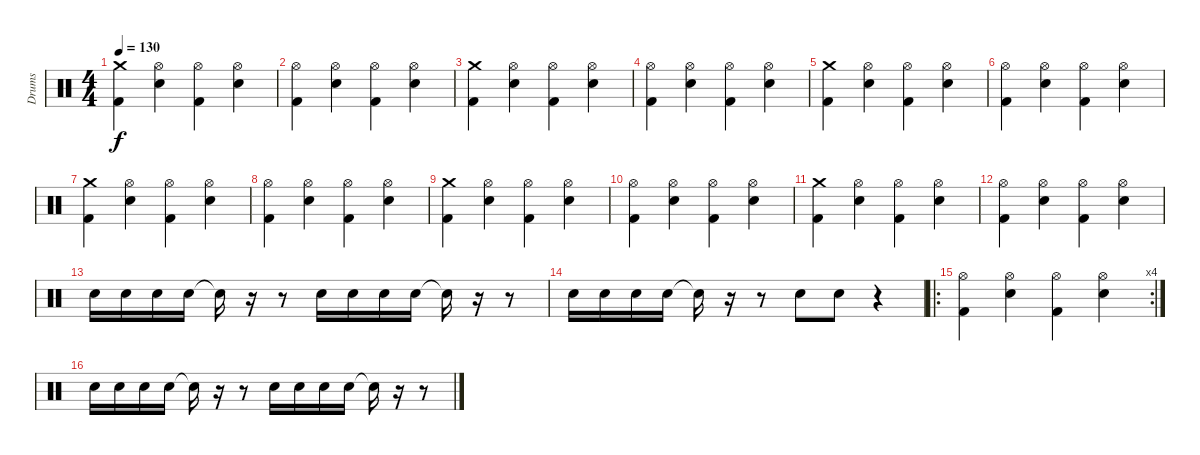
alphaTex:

\track ("Drums" "Drums") {instrument percussion}
\staff {score}
\articulation defaults
\ts (4 4)
\tempo 130
\clef neutral
\ks c
("Crash medium (hit)" "Kick (hit) 2").4{dy f} ("Hi-Hat (open)" "Electric Snare (hit)").4 ("Hi-Hat (open)" "Kick (hit) 2").4 ("Hi-Hat (open)" "Electric Snare (hit)").4 |
("Hi-Hat (open)" "Kick (hit) 2").4 ("Hi-Hat (open)" "Electric Snare (hit)").4 ("Hi-Hat (open)" "Kick (hit) 2").4 ("Hi-Hat (open)" "Electric Snare (hit)").4 |
("Crash medium (hit)" "Kick (hit) 2").4 ("Hi-Hat (open)" "Electric Snare (hit)").4 ("Hi-Hat (open)" "Kick (hit) 2").4 ("Hi-Hat (open)" "Electric Snare (hit)").4 |
("Hi-Hat (open)" "Kick (hit) 2").4 ("Hi-Hat (open)" "Electric Snare (hit)").4 ("Hi-Hat (open)" "Kick (hit) 2").4 ("Hi-Hat (open)" "Electric Snare (hit)").4 |
("Crash medium (hit)" "Kick (hit) 2").4 ("Hi-Hat (open)" "Electric Snare (hit)").4 ("Hi-Hat (open)" "Kick (hit) 2").4 ("Hi-Hat (open)" "Electric Snare (hit)").4 |
("Hi-Hat (open)" "Kick (hit) 2").4 ("Hi-Hat (open)" "Electric Snare (hit)").4 ("Hi-Hat (open)" "Kick (hit) 2").4 ("Hi-Hat (open)" "Electric Snare (hit)").4 |
("Crash medium (hit)" "Kick (hit) 2").4 ("Hi-Hat (open)" "Electric Snare (hit)").4 ("Hi-Hat (open)" "Kick (hit) 2").4 ("Hi-Hat (open)" "Electric Snare (hit)").4 |
("Hi-Hat (open)" "Kick (hit) 2").4 ("Hi-Hat (open)" "Electric Snare (hit)").4 ("Hi-Hat (open)" "Kick (hit) 2").4 ("Hi-Hat (open)" "Electric Snare (hit)").4 |
("Crash medium (hit)" "Kick (hit) 2").4 ("Hi-Hat (open)" "Electric Snare (hit)").4 ("Hi-Hat (open)" "Kick (hit) 2").4 ("Hi-Hat (open)" "Electric Snare (hit)").4 |
("Hi-Hat (open)" "Kick (hit) 2").4 ("Hi-Hat (open)" "Electric Snare (hit)").4 ("Hi-Hat (open)" "Kick (hit) 2").4 ("Hi-Hat (open)" "Electric Snare (hit)").4 |
("Crash medium (hit)" "Kick (hit) 2").4 ("Hi-Hat (open)" "Electric Snare (hit)").4 ("Hi-Hat (open)" "Kick (hit) 2").4 ("Hi-Hat (open)" "Electric Snare (hit)").4 |
("Hi-Hat (open)" "Kick (hit) 2").4 ("Hi-Hat (open)" "Electric Snare (hit)").4 ("Hi-Hat (open)" "Kick (hit) 2").4 ("Hi-Hat (open)" "Electric Snare (hit)").4 |
"Electric Snare (hit)".16 "Electric Snare (hit)".16 "Electric Snare (hit)".16 "Electric Snare (hit)".16 "Snare (hit)"{t}.16 r.16 r.8 "Electric Snare (hit)".16 "Electric Snare (hit)".16 "Electric Snare (hit)".16 "Electric Snare (hit)".16 "Snare (hit)"{t}.16 r.16 r.8 |
"Electric Snare (hit)".16 "Electric Snare (hit)".16 "Electric Snare (hit)".16 "Electric Snare (hit)".16 "Snare (hit)"{t}.16 r.16 r.8 "Electric Snare (hit)".8 "Electric Snare (hit)".8 r.4 |
\ro
\rc 4
("Hi-Hat (open)" "Kick (hit) 2").4 ("Hi-Hat (open)" "Electric Snare (hit)").4 ("Hi-Hat (open)" "Kick (hit) 2").4 ("Hi-Hat (open)" "Electric Snare (hit)").4 |
"Electric Snare (hit)".16 "Electric Snare (hit)".16 "Electric Snare (hit)".16 "Electric Snare (hit)".16 "Snare (hit)"{t}.16 r.16 r.8 "Electric Snare (hit)".16 "Electric Snare (hit)".16 "Electric Snare (hit)".16 "Electric Snare (hit)".16 "Snare (hit)"{t}.16 r.16 r.8
